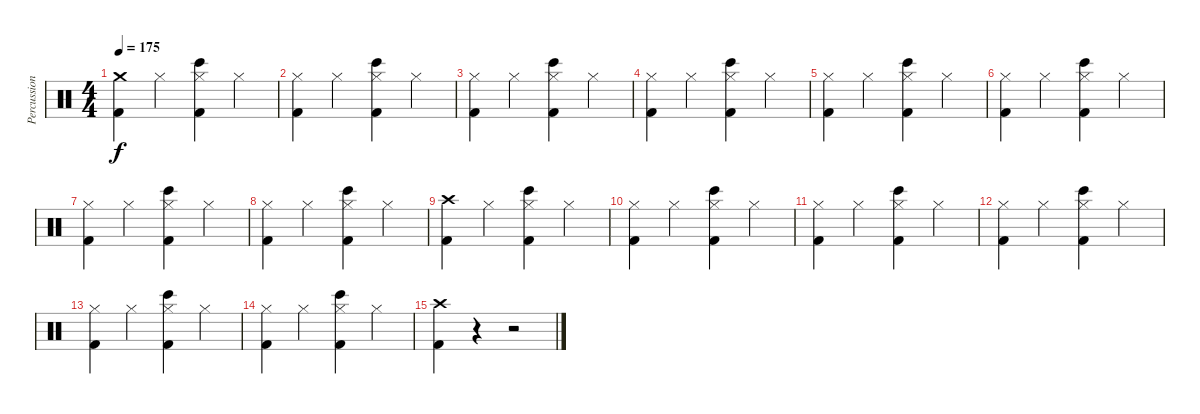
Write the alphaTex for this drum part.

\track ("Percussion" "Percussion") {instrument percussion}
\staff {score}
\articulation defaults
\ts (4 4)
\tempo 175
\clef neutral
\ks c
("Crash medium (hit)" "Kick (hit) 2").4{dy f} "Hi-Hat (closed)".4 ("Hi-Hat (closed)" "Kick (hit) 2" "Bongo High (hit)").4 "Hi-Hat (closed)".4 |
("Hi-Hat (closed)" "Kick (hit) 2").4 "Hi-Hat (closed)".4 ("Hi-Hat (closed)" "Kick (hit) 2" "Bongo High (hit)").4 "Hi-Hat (closed)".4 |
("Hi-Hat (closed)" "Kick (hit) 2").4 "Hi-Hat (closed)".4 ("Hi-Hat (closed)" "Kick (hit) 2" "Bongo High (hit)").4 "Hi-Hat (closed)".4 |
("Hi-Hat (closed)" "Kick (hit) 2").4 "Hi-Hat (closed)".4 ("Hi-Hat (closed)" "Kick (hit) 2" "Bongo High (hit)").4 "Hi-Hat (closed)".4 |
("Hi-Hat (closed)" "Kick (hit) 2").4 "Hi-Hat (closed)".4 ("Hi-Hat (closed)" "Kick (hit) 2" "Bongo High (hit)").4 "Hi-Hat (closed)".4 |
("Hi-Hat (closed)" "Kick (hit) 2").4 "Hi-Hat (closed)".4 ("Hi-Hat (closed)" "Kick (hit) 2" "Bongo High (hit)").4 "Hi-Hat (closed)".4 |
("Hi-Hat (closed)" "Kick (hit) 2").4 "Hi-Hat (closed)".4 ("Hi-Hat (closed)" "Kick (hit) 2" "Bongo High (hit)").4 "Hi-Hat (closed)".4 |
("Hi-Hat (closed)" "Kick (hit) 2").4 "Hi-Hat (closed)".4 ("Hi-Hat (closed)" "Kick (hit) 2" "Bongo High (hit)").4 "Hi-Hat (closed)".4 |
("Crash high (hit)" "Kick (hit) 2").4 "Hi-Hat (closed)".4 ("Hi-Hat (closed)" "Kick (hit) 2" "Bongo High (hit)").4 "Hi-Hat (closed)".4 |
("Hi-Hat (closed)" "Kick (hit) 2").4 "Hi-Hat (closed)".4 ("Hi-Hat (closed)" "Kick (hit) 2" "Bongo High (hit)").4 "Hi-Hat (closed)".4 |
("Hi-Hat (closed)" "Kick (hit) 2").4 "Hi-Hat (closed)".4 ("Hi-Hat (closed)" "Kick (hit) 2" "Bongo High (hit)").4 "Hi-Hat (closed)".4 |
("Hi-Hat (closed)" "Kick (hit) 2").4 "Hi-Hat (closed)".4 ("Hi-Hat (closed)" "Kick (hit) 2" "Bongo High (hit)").4 "Hi-Hat (closed)".4 |
("Hi-Hat (closed)" "Kick (hit) 2").4 "Hi-Hat (closed)".4 ("Hi-Hat (closed)" "Kick (hit) 2" "Bongo High (hit)").4 "Hi-Hat (closed)".4 |
("Hi-Hat (closed)" "Kick (hit) 2").4 "Hi-Hat (closed)".4 ("Hi-Hat (closed)" "Kick (hit) 2" "Bongo High (hit)").4 "Hi-Hat (closed)".4 |
("Crash high (hit)" "Kick (hit) 2").4 r.4 r.2
